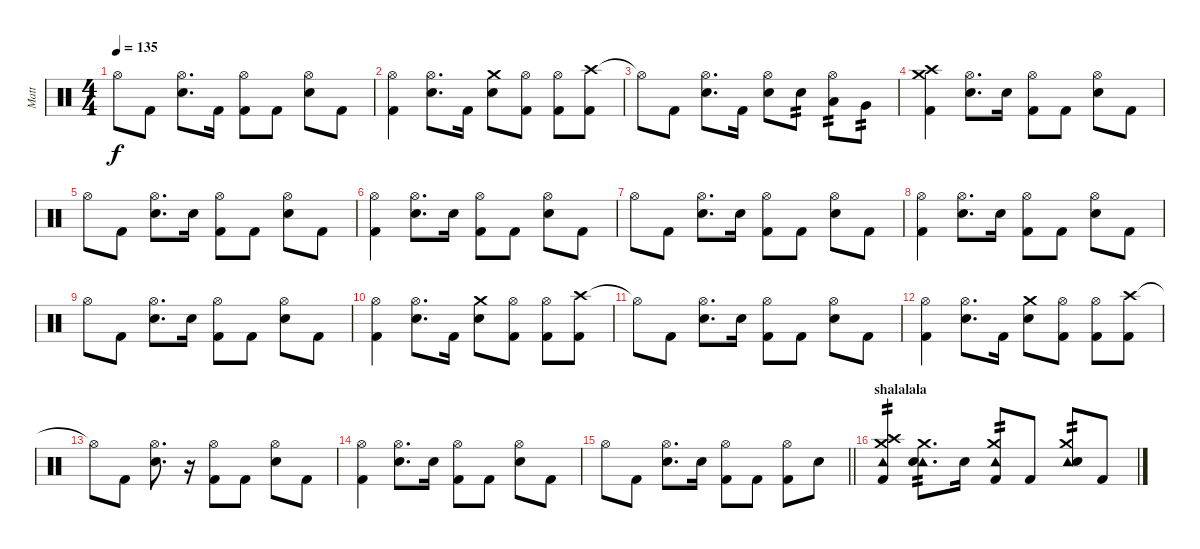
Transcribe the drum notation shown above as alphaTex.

\track ("Matt" "Matt") {instrument percussion}
\staff {score}
\articulation defaults
\ts (4 4)
\tempo 135
\clef neutral
\ks c "Hi-Hat (open)".8{dy f} "Kick (hit) 2".8
("Hi-Hat (open)" "Snare (hit) 2").8{d} "Kick (hit) 2".16 ("Hi-Hat (open)" "Kick (hit) 2").8 "Kick (hit) 2".8 ("Hi-Hat (open)" "Snare (hit) 2").8 "Kick (hit) 2".8 |
("Hi-Hat (open)" "Kick (hit) 2").4 ("Hi-Hat (open)" "Snare (hit) 2").8{d} "Kick (hit) 2".16 ("Crash medium (hit)" "Snare (hit) 2").8 ("Hi-Hat (open)" "Kick (hit) 2").8 ("Hi-Hat (open)" "Kick (hit) 2").8 ("Crash high (hit)" "Kick (hit) 2").8 |
"Hi-Hat (open)"{t}.8 "Kick (hit) 2".8 ("Hi-Hat (open)" "Snare (hit) 2").8{d} "Kick (hit) 2".16 ("Hi-Hat (open)" "Snare (hit) 2").8 "Snare (hit) 2".8{tp 2} ("Hi-Hat (open)" "Low Tom (hit)").8{tp 2} "Very Low Tom (hit)".8{tp 2} |
("Crash high (hit)" "Crash medium (hit)" "Kick (hit) 2").4 ("Hi-Hat (open)" "Snare (hit) 2").8{d} "Snare (hit) 2".16 ("Hi-Hat (open)" "Kick (hit) 2").8 "Kick (hit) 2".8 ("Hi-Hat (open)" "Snare (hit) 2").8 "Kick (hit) 2".8 |
"Hi-Hat (open)".8 "Kick (hit) 2".8 ("Hi-Hat (open)" "Snare (hit) 2").8{d} "Snare (hit) 2".16 ("Hi-Hat (open)" "Kick (hit) 2").8 "Kick (hit) 2".8 ("Hi-Hat (open)" "Snare (hit) 2").8 "Kick (hit) 2".8 |
("Hi-Hat (open)" "Kick (hit) 2").4 ("Hi-Hat (open)" "Snare (hit) 2").8{d} "Snare (hit) 2".16 ("Hi-Hat (open)" "Kick (hit) 2").8 "Kick (hit) 2".8 ("Hi-Hat (open)" "Snare (hit) 2").8 "Kick (hit) 2".8 |
"Hi-Hat (open)".8 "Kick (hit) 2".8 ("Hi-Hat (open)" "Snare (hit) 2").8{d} "Snare (hit) 2".16 ("Hi-Hat (open)" "Kick (hit) 2").8 "Kick (hit) 2".8 ("Hi-Hat (open)" "Snare (hit) 2").8 "Kick (hit) 2".8 |
("Hi-Hat (open)" "Kick (hit) 2").4 ("Hi-Hat (open)" "Snare (hit) 2").8{d} "Snare (hit) 2".16 ("Hi-Hat (open)" "Kick (hit) 2").8 "Kick (hit) 2".8 ("Hi-Hat (open)" "Snare (hit) 2").8 "Kick (hit) 2".8 |
"Hi-Hat (open)".8 "Kick (hit) 2".8 ("Hi-Hat (open)" "Snare (hit) 2").8{d} "Snare (hit) 2".16 ("Hi-Hat (open)" "Kick (hit) 2").8 "Kick (hit) 2".8 ("Hi-Hat (open)" "Snare (hit) 2").8 "Kick (hit) 2".8 |
("Hi-Hat (open)" "Kick (hit) 2").4 ("Hi-Hat (open)" "Snare (hit) 2").8{d} "Kick (hit) 2".16 ("Crash medium (hit)" "Snare (hit) 2").8 ("Hi-Hat (open)" "Kick (hit) 2").8 ("Hi-Hat (open)" "Kick (hit) 2").8 ("Crash high (hit)" "Kick (hit) 2").8 |
"Hi-Hat (open)"{t}.8 "Kick (hit) 2".8 ("Hi-Hat (open)" "Snare (hit) 2").8{d} "Snare (hit) 2".16 ("Hi-Hat (open)" "Kick (hit) 2").8 "Kick (hit) 2".8 ("Hi-Hat (open)" "Snare (hit) 2").8 "Kick (hit) 2".8 |
("Hi-Hat (open)" "Kick (hit) 2").4 ("Hi-Hat (open)" "Snare (hit) 2").8{d} "Kick (hit) 2".16 ("Crash medium (hit)" "Snare (hit) 2").8 ("Hi-Hat (open)" "Kick (hit) 2").8 ("Hi-Hat (open)" "Kick (hit) 2").8 ("Crash high (hit)" "Kick (hit) 2").8 |
"Hi-Hat (open)"{t}.8 "Kick (hit) 2".8 ("Hi-Hat (open)" "Snare (hit) 2").8{d} r.16 ("Hi-Hat (open)" "Kick (hit) 2").8 "Kick (hit) 2".8 ("Hi-Hat (open)" "Snare (hit) 2").8 "Kick (hit) 2".8 |
("Hi-Hat (open)" "Kick (hit) 2").4 ("Hi-Hat (open)" "Snare (hit) 2").8{d} "Snare (hit) 2".16 ("Hi-Hat (open)" "Kick (hit) 2").8 "Kick (hit) 2".8 ("Hi-Hat (open)" "Snare (hit) 2").8 "Kick (hit) 2".8 |
\barLineRight lightlight "Hi-Hat (open)".8 "Kick (hit) 2".8
("Hi-Hat (open)" "Snare (hit) 2").8{d} "Snare (hit) 2".16 ("Hi-Hat (open)" "Kick (hit) 2").8 "Kick (hit) 2".8 ("Hi-Hat (open)" "Kick (hit) 2").8 "Snare (hit) 2".8 |
\section ("" "shalalala")
("Tambourine (hit)" "Crash high (hit)" "Crash medium (hit)" "Kick (hit) 2").4{tp 2} ("Tambourine (hit)" "Crash medium (hit)" "Snare (hit) 2").8{d tp 2} "Snare (hit) 2".16 ("Tambourine (hit)" "Crash medium (hit)" "Kick (hit) 2").8{tp 2} "Kick (hit) 2".8 ("Tambourine (hit)" "Crash medium (hit)" "Snare (hit) 2").8{tp 2} "Kick (hit) 2".8
